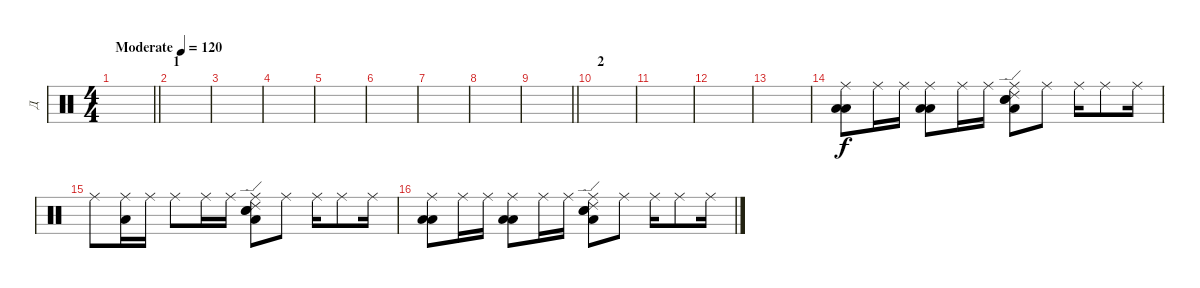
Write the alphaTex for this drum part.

\track ("Д" "Д") {instrument percussion}
\staff {score}
\articulation defaults
\ts (4 4)
\tempo (120 "Moderate")
\clef neutral
\barLineRight lightlight
\ks c
|
\section ("" "1")
|
|
|
|
|
|
|
\barLineRight lightlight
|
\section ("" "2")
|
|
|
|
("Low Tom (hit)" "Low Floor Tom (hit)" "Ride (middle)").8{volume 13} "Ride (middle)".16 "Ride (middle)".16 ("Low Tom (hit)" "Low Floor Tom (hit)" "Ride (middle)").8 "Ride (middle)".16 "Ride (middle)".16 ("Ride (edge) 2" "Electric Snare (hit)" "Electric Snare (hit)" "Low Floor Tom (hit)" "Ride (middle)").8 "Ride (middle)".8 "Ride (middle)".16 "Ride (middle)".8 "Ride (middle)".16 |
"Ride (middle)".8 ("Low Tom (hit)" "Ride (middle)").16 "Ride (middle)".16 "Ride (middle)".8 "Ride (middle)".16 "Ride (middle)".16 ("Ride (edge) 2" "Electric Snare (hit)" "Electric Snare (hit)" "Low Floor Tom (hit)" "Ride (middle)").8 "Ride (middle)".8 "Ride (middle)".16 "Ride (middle)".8 "Ride (middle)".16 |
("Low Tom (hit)" "Low Floor Tom (hit)" "Ride (middle)").8 "Ride (middle)".16 "Ride (middle)".16 ("Low Tom (hit)" "Low Floor Tom (hit)" "Ride (middle)").8 "Ride (middle)".16 "Ride (middle)".16 ("Ride (edge) 2" "Electric Snare (hit)" "Electric Snare (hit)" "Low Floor Tom (hit)" "Ride (middle)").8 "Ride (middle)".8 "Ride (middle)".16 "Ride (middle)".8 "Ride (middle)".16
